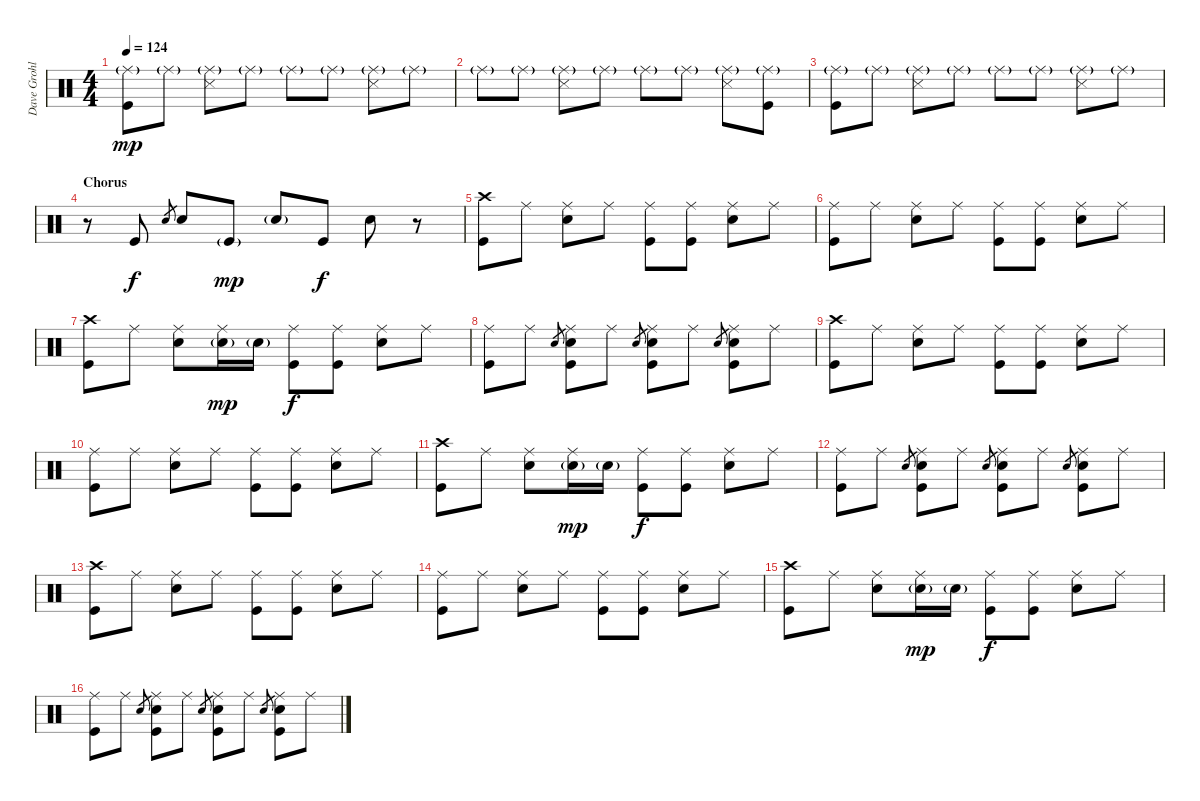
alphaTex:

\track ("Dave Grohl" "Dave Grohl") {instrument percussion}
\staff {score}
\articulation defaults
\ts (4 4)
\tempo 124
\clef neutral
\ks c
("Ride (middle)"{g} "Kick (hit)").8{dy mp} "Ride (middle)"{g}.8 ("Ride (middle)"{g} "Snare (side stick) 3").8 "Ride (middle)"{g}.8 "Ride (middle)"{g}.8 "Ride (middle)"{g}.8 ("Ride (middle)"{g} "Snare (side stick) 3").8 "Ride (middle)"{g}.8 |
"Ride (middle)"{g}.8 "Ride (middle)"{g}.8 ("Ride (middle)"{g} "Snare (side stick) 3").8 "Ride (middle)"{g}.8 "Ride (middle)"{g}.8 "Ride (middle)"{g}.8 ("Ride (middle)"{g} "Snare (side stick) 3").8 ("Ride (middle)"{g} "Kick (hit)").8 |
("Ride (middle)"{g} "Kick (hit)").8 "Ride (middle)"{g}.8 ("Ride (middle)"{g} "Snare (side stick) 3").8 "Ride (middle)"{g}.8 "Ride (middle)"{g}.8 "Ride (middle)"{g}.8 ("Ride (middle)"{g} "Snare (side stick) 3").8 "Ride (middle)"{g}.8 |
\section ("" "Chorus")
r.8 "Kick (hit)".8{dy f} "Snare (hit) 2".8{gr} "Snare (hit) 2".8 "Kick (hit)"{g}.8{dy mp} "Snare (hit) 2"{g}.8 "Kick (hit)".8{dy f} "Snare (hit) 2".8 r.8 |
("Crash high (hit)" "Kick (hit)").8 "Ride (middle)".8 ("Ride (middle)" "Snare (hit) 2").8 "Ride (middle)".8 ("Ride (middle)" "Kick (hit)").8 ("Ride (middle)" "Kick (hit)").8 ("Ride (middle)" "Snare (hit) 2").8 "Ride (middle)".8 |
("Ride (middle)" "Kick (hit)").8 "Ride (middle)".8 ("Ride (middle)" "Snare (hit) 2").8 "Ride (middle)".8 ("Ride (middle)" "Kick (hit)").8 ("Ride (middle)" "Kick (hit)").8 ("Ride (middle)" "Snare (hit) 2").8 "Ride (middle)".8 |
("Crash high (hit)" "Kick (hit)").8 "Ride (middle)".8 ("Ride (middle)" "Snare (hit) 2").8 ("Ride (middle)" "Snare (hit) 2"{g}).16{dy mp} "Snare (hit) 2"{g}.16 ("Ride (middle)" "Kick (hit)").8{dy f} ("Ride (middle)" "Kick (hit)").8 ("Ride (middle)" "Snare (hit) 2").8 "Ride (middle)".8 |
("Ride (middle)" "Kick (hit)").8 "Ride (middle)".8 "Snare (hit) 2".8{gr} ("Ride (middle)" "Snare (hit) 2" "Kick (hit)").8 "Ride (middle)".8 "Snare (hit) 2".8{gr} ("Ride (middle)" "Snare (hit) 2" "Kick (hit)").8 "Ride (middle)".8 "Snare (hit) 2".8{gr} ("Ride (middle)" "Snare (hit) 2" "Kick (hit)").8 "Ride (middle)".8 |
("Crash high (hit)" "Kick (hit)").8 "Ride (middle)".8 ("Ride (middle)" "Snare (hit) 2").8 "Ride (middle)".8 ("Ride (middle)" "Kick (hit)").8 ("Ride (middle)" "Kick (hit)").8 ("Ride (middle)" "Snare (hit) 2").8 "Ride (middle)".8 |
("Ride (middle)" "Kick (hit)").8 "Ride (middle)".8 ("Ride (middle)" "Snare (hit) 2").8 "Ride (middle)".8 ("Ride (middle)" "Kick (hit)").8 ("Ride (middle)" "Kick (hit)").8 ("Ride (middle)" "Snare (hit) 2").8 "Ride (middle)".8 |
("Crash high (hit)" "Kick (hit)").8 "Ride (middle)".8 ("Ride (middle)" "Snare (hit) 2").8 ("Ride (middle)" "Snare (hit) 2"{g}).16{dy mp} "Snare (hit) 2"{g}.16 ("Ride (middle)" "Kick (hit)").8{dy f} ("Ride (middle)" "Kick (hit)").8 ("Ride (middle)" "Snare (hit) 2").8 "Ride (middle)".8 |
("Ride (middle)" "Kick (hit)").8 "Ride (middle)".8 "Snare (hit) 2".8{gr} ("Ride (middle)" "Snare (hit) 2" "Kick (hit)").8 "Ride (middle)".8 "Snare (hit) 2".8{gr} ("Ride (middle)" "Snare (hit) 2" "Kick (hit)").8 "Ride (middle)".8 "Snare (hit) 2".8{gr} ("Ride (middle)" "Snare (hit) 2" "Kick (hit)").8 "Ride (middle)".8 |
("Crash high (hit)" "Kick (hit)").8 "Ride (middle)".8 ("Ride (middle)" "Snare (hit) 2").8 "Ride (middle)".8 ("Ride (middle)" "Kick (hit)").8 ("Ride (middle)" "Kick (hit)").8 ("Ride (middle)" "Snare (hit) 2").8 "Ride (middle)".8 |
("Ride (middle)" "Kick (hit)").8 "Ride (middle)".8 ("Ride (middle)" "Snare (hit) 2").8 "Ride (middle)".8 ("Ride (middle)" "Kick (hit)").8 ("Ride (middle)" "Kick (hit)").8 ("Ride (middle)" "Snare (hit) 2").8 "Ride (middle)".8 |
("Crash high (hit)" "Kick (hit)").8 "Ride (middle)".8 ("Ride (middle)" "Snare (hit) 2").8 ("Ride (middle)" "Snare (hit) 2"{g}).16{dy mp} "Snare (hit) 2"{g}.16 ("Ride (middle)" "Kick (hit)").8{dy f} ("Ride (middle)" "Kick (hit)").8 ("Ride (middle)" "Snare (hit) 2").8 "Ride (middle)".8 |
("Ride (middle)" "Kick (hit)").8 "Ride (middle)".8 "Snare (hit) 2".8{gr} ("Ride (middle)" "Snare (hit) 2" "Kick (hit)").8 "Ride (middle)".8 "Snare (hit) 2".8{gr} ("Ride (middle)" "Snare (hit) 2" "Kick (hit)").8 "Ride (middle)".8 "Snare (hit) 2".8{gr} ("Ride (middle)" "Snare (hit) 2" "Kick (hit)").8 "Ride (middle)".8
